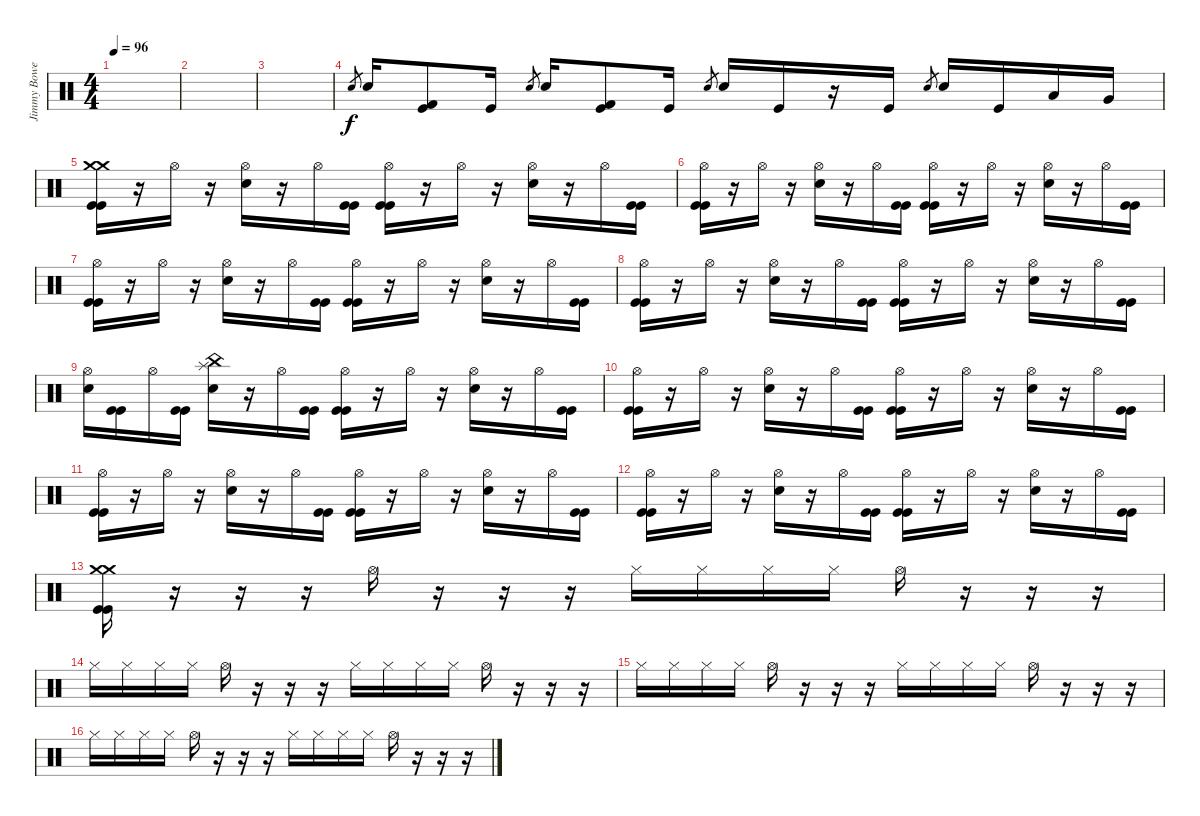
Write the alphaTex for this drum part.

\track ("Jimmy Bower" "Jimmy Bowe") {instrument percussion}
\staff {score}
\articulation defaults
\ts (4 4)
\tempo 96
\clef neutral
\ks c
|
|
|
"Snare (hit) 2".8{gr} "Snare (hit) 2".16 ("Kick (hit) 2" "Kick (hit)").8 "Kick (hit)".16 "Snare (hit) 2".8{gr} "Snare (hit) 2".16 ("Kick (hit) 2" "Kick (hit)").8 "Kick (hit)".16 "Snare (hit) 2".8{gr} "Snare (hit) 2".16 "Kick (hit)".16 r.16 "Kick (hit)".16 "Snare (hit) 2".8{gr} "Snare (hit) 2".16 "Kick (hit)".16 "Low Tom (hit)".16 "Very Low Tom (hit)".16 |
("Crash medium (hit)" "Crash medium (hit)" "Kick (hit)" "Kick (hit)").16 r.16 "Hi-Hat (open)".16 r.16 ("Hi-Hat (open)" "Snare (hit) 2").16 r.16 "Hi-Hat (open)".16 ("Kick (hit)" "Kick (hit)").16 ("Hi-Hat (open)" "Kick (hit)" "Kick (hit)").16 r.16 "Hi-Hat (open)".16 r.16 ("Hi-Hat (open)" "Snare (hit) 2").16 r.16 "Hi-Hat (open)".16 ("Kick (hit)" "Kick (hit)").16 |
("Hi-Hat (open)" "Kick (hit)" "Kick (hit)").16 r.16 "Hi-Hat (open)".16 r.16 ("Hi-Hat (open)" "Snare (hit) 2").16 r.16 "Hi-Hat (open)".16 ("Kick (hit)" "Kick (hit)").16 ("Hi-Hat (open)" "Kick (hit)" "Kick (hit)").16 r.16 "Hi-Hat (open)".16 r.16 ("Hi-Hat (open)" "Snare (hit) 2").16 r.16 "Hi-Hat (open)".16 ("Kick (hit)" "Kick (hit)").16 |
("Hi-Hat (open)" "Kick (hit)" "Kick (hit)").16 r.16 "Hi-Hat (open)".16 r.16 ("Hi-Hat (open)" "Snare (hit) 2").16 r.16 "Hi-Hat (open)".16 ("Kick (hit)" "Kick (hit)").16 ("Hi-Hat (open)" "Kick (hit)" "Kick (hit)").16 r.16 "Hi-Hat (open)".16 r.16 ("Hi-Hat (open)" "Snare (hit) 2").16 r.16 "Hi-Hat (open)".16 ("Kick (hit)" "Kick (hit)").16 |
("Hi-Hat (open)" "Kick (hit)" "Kick (hit)").16 r.16 "Hi-Hat (open)".16 r.16 ("Hi-Hat (open)" "Snare (hit) 2").16 r.16 "Hi-Hat (open)".16 ("Kick (hit)" "Kick (hit)").16 ("Hi-Hat (open)" "Kick (hit)" "Kick (hit)").16 r.16 "Hi-Hat (open)".16 r.16 ("Hi-Hat (open)" "Snare (hit) 2").16 r.16 "Hi-Hat (open)".16 ("Kick (hit)" "Kick (hit)").16 |
("Hi-Hat (open)" "Snare (hit) 2").16 ("Kick (hit)" "Kick (hit)").16 "Hi-Hat (open)".16 ("Kick (hit)" "Kick (hit)").16 ("Splash (hit)" "China (hit)" "Snare (hit) 2").16 r.16 "Hi-Hat (open)".16 ("Kick (hit)" "Kick (hit)").16 ("Hi-Hat (open)" "Kick (hit)" "Kick (hit)").16 r.16 "Hi-Hat (open)".16 r.16 ("Hi-Hat (open)" "Snare (hit) 2").16 r.16 "Hi-Hat (open)".16 ("Kick (hit)" "Kick (hit)").16 |
("Hi-Hat (open)" "Kick (hit)" "Kick (hit)").16 r.16 "Hi-Hat (open)".16 r.16 ("Hi-Hat (open)" "Snare (hit) 2").16 r.16 "Hi-Hat (open)".16 ("Kick (hit)" "Kick (hit)").16 ("Hi-Hat (open)" "Kick (hit)" "Kick (hit)").16 r.16 "Hi-Hat (open)".16 r.16 ("Hi-Hat (open)" "Snare (hit) 2").16 r.16 "Hi-Hat (open)".16 ("Kick (hit)" "Kick (hit)").16 |
("Hi-Hat (open)" "Kick (hit)" "Kick (hit)").16 r.16 "Hi-Hat (open)".16 r.16 ("Hi-Hat (open)" "Snare (hit) 2").16 r.16 "Hi-Hat (open)".16 ("Kick (hit)" "Kick (hit)").16 ("Hi-Hat (open)" "Kick (hit)" "Kick (hit)").16 r.16 "Hi-Hat (open)".16 r.16 ("Hi-Hat (open)" "Snare (hit) 2").16 r.16 "Hi-Hat (open)".16 ("Kick (hit)" "Kick (hit)").16 |
("Hi-Hat (open)" "Kick (hit)" "Kick (hit)").16 r.16 "Hi-Hat (open)".16 r.16 ("Hi-Hat (open)" "Snare (hit) 2").16 r.16 "Hi-Hat (open)".16 ("Kick (hit)" "Kick (hit)").16 ("Hi-Hat (open)" "Kick (hit)" "Kick (hit)").16 r.16 "Hi-Hat (open)".16 r.16 ("Hi-Hat (open)" "Snare (hit) 2").16 r.16 "Hi-Hat (open)".16 ("Kick (hit)" "Kick (hit)").16 |
("Crash medium (hit)" "Crash medium (hit)" "Kick (hit)" "Kick (hit)").16 r.16 r.16 r.16 "Hi-Hat (open)".16 r.16 r.16 r.16 "Hi-Hat (closed)".16 "Hi-Hat (closed)".16 "Hi-Hat (closed)".16 "Hi-Hat (closed)".16 "Hi-Hat (open)".16 r.16 r.16 r.16 |
"Hi-Hat (closed)".16 "Hi-Hat (closed)".16 "Hi-Hat (closed)".16 "Hi-Hat (closed)".16 "Hi-Hat (open)".16 r.16 r.16 r.16 "Hi-Hat (closed)".16 "Hi-Hat (closed)".16 "Hi-Hat (closed)".16 "Hi-Hat (closed)".16 "Hi-Hat (open)".16 r.16 r.16 r.16 |
"Hi-Hat (closed)".16 "Hi-Hat (closed)".16 "Hi-Hat (closed)".16 "Hi-Hat (closed)".16 "Hi-Hat (open)".16 r.16 r.16 r.16 "Hi-Hat (closed)".16 "Hi-Hat (closed)".16 "Hi-Hat (closed)".16 "Hi-Hat (closed)".16 "Hi-Hat (open)".16 r.16 r.16 r.16 |
"Hi-Hat (closed)".16 "Hi-Hat (closed)".16 "Hi-Hat (closed)".16 "Hi-Hat (closed)".16 "Hi-Hat (open)".16 r.16 r.16 r.16 "Hi-Hat (closed)".16 "Hi-Hat (closed)".16 "Hi-Hat (closed)".16 "Hi-Hat (closed)".16 "Hi-Hat (open)".16 r.16 r.16 r.16
